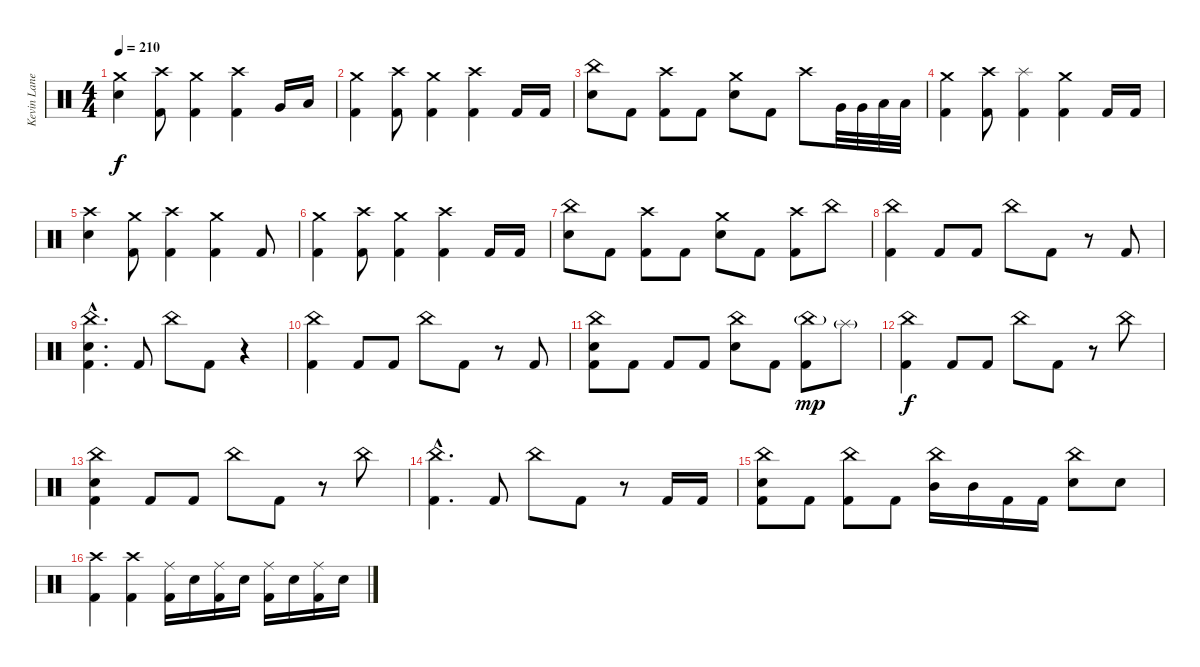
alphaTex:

\track ("Kevin Lane (Drums)" "Kevin Lane") {instrument percussion}
\staff {score}
\articulation defaults
\ts (4 4)
\tempo 210
\clef neutral
\ks c
("Crash medium (hit)" "Snare (hit) 2").4{dy f} ("Crash high (hit)" "Kick (hit) 2").8 ("Crash medium (hit)" "Kick (hit) 2").4 ("Crash high (hit)" "Kick (hit) 2").4 "Very Low Tom (hit)".16 "Low Floor Tom (hit)".16 |
("Crash medium (hit)" "Kick (hit) 2").4 ("Crash high (hit)" "Kick (hit) 2").8 ("Crash medium (hit)" "Kick (hit) 2").4 ("Crash high (hit)" "Kick (hit) 2").4 "Kick (hit) 2".16 "Kick (hit) 2".16 |
("China (hit)" "Snare (hit) 2").8 "Kick (hit) 2".8 ("Crash high (hit)" "Kick (hit) 2").8 "Kick (hit) 2".8 ("Crash medium (hit)" "Snare (hit) 2").8 "Kick (hit) 2".8 "Crash high (hit)".8 "Very Low Tom (hit)".32 "Very Low Tom (hit)".32 "Low Floor Tom (hit)".32 "Low Floor Tom (hit)".32 |
("Crash medium (hit)" "Kick (hit) 2").4 ("Crash high (hit)" "Kick (hit) 2").8 ("Splash (hit)" "Kick (hit) 2").4 ("Crash medium (hit)" "Kick (hit) 2").4 "Kick (hit) 2".16 "Kick (hit) 2".16 |
("Crash high (hit)" "Snare (hit) 2").4 ("Crash medium (hit)" "Kick (hit) 2").8 ("Crash high (hit)" "Kick (hit) 2").4 ("Crash medium (hit)" "Kick (hit) 2").4 "Kick (hit) 2".8 |
("Crash medium (hit)" "Kick (hit) 2").4 ("Crash high (hit)" "Kick (hit) 2").8 ("Crash medium (hit)" "Kick (hit) 2").4 ("Crash high (hit)" "Kick (hit) 2").4 "Kick (hit) 2".16 "Kick (hit) 2".16 |
("China (hit)" "Snare (hit) 2").8 "Kick (hit) 2".8 ("Crash high (hit)" "Kick (hit) 2").8 "Kick (hit) 2".8 ("Crash medium (hit)" "Snare (hit) 2").8 "Kick (hit) 2".8 ("Crash high (hit)" "Kick (hit) 2").8 "China (hit)".8 |
("China (hit)" "Kick (hit) 2").4 "Kick (hit) 2".8 "Kick (hit) 2".8 "China (hit)".8 "Kick (hit) 2".8 r.8 "Kick (hit) 2".8 |
("Snare (hit) 2"{hac} "China (hit)"{hac} "Kick (hit) 2"{hac}).4{d} "Kick (hit) 2".8 "China (hit)".8 "Kick (hit) 2".8 r.4 |
("China (hit)" "Kick (hit) 2").4 "Kick (hit) 2".8 "Kick (hit) 2".8 "China (hit)".8 "Kick (hit) 2".8 r.8 "Kick (hit) 2".8 |
("Snare (hit) 2" "China (hit)" "Kick (hit) 2").8 "Kick (hit) 2".8 "Kick (hit) 2".8 "Kick (hit) 2".8 ("China (hit)" "Snare (hit) 2").8 "Kick (hit) 2".8 ("China (hit)"{g} "Kick (hit) 2").8{dy mp} "Splash (hit)"{g}.8 |
("China (hit)" "Kick (hit) 2").4{dy f} "Kick (hit) 2".8 "Kick (hit) 2".8 "China (hit)".8 "Kick (hit) 2".8 r.8 "China (hit)".8 |
("Snare (hit) 2" "China (hit)" "Kick (hit) 2").4 "Kick (hit) 2".8 "Kick (hit) 2".8 "China (hit)".8 "Kick (hit) 2".8 r.8 "China (hit)".8 |
("China (hit)"{hac} "Kick (hit) 2"{hac}).4{d} "Kick (hit) 2".8 "China (hit)".8 "Kick (hit) 2".8 r.8 "Kick (hit) 2".16 "Kick (hit) 2".16 |
("Snare (hit) 2" "China (hit)" "Kick (hit) 2").8 "Kick (hit) 2".8 ("China (hit)" "Kick (hit) 2").8 "Kick (hit) 2".8 ("China (hit)" "Mid Tom (hit)").16 "Mid Tom (hit)".16 "Kick (hit) 2".16 "Kick (hit) 2".16 ("China (hit)" "Snare (hit) 2").8 "Snare (hit) 2".8 |
("Crash high (hit)" "Kick (hit) 2").4 ("Crash high (hit)" "Kick (hit) 2").4 ("Ride (middle)" "Kick (hit) 2").16 "Snare (hit) 2".16 ("Ride (middle)" "Kick (hit) 2").16 "Snare (hit) 2".16 ("Ride (middle)" "Kick (hit) 2").16 "Snare (hit) 2".16 ("Ride (middle)" "Kick (hit) 2").16 "Snare (hit) 2".16
